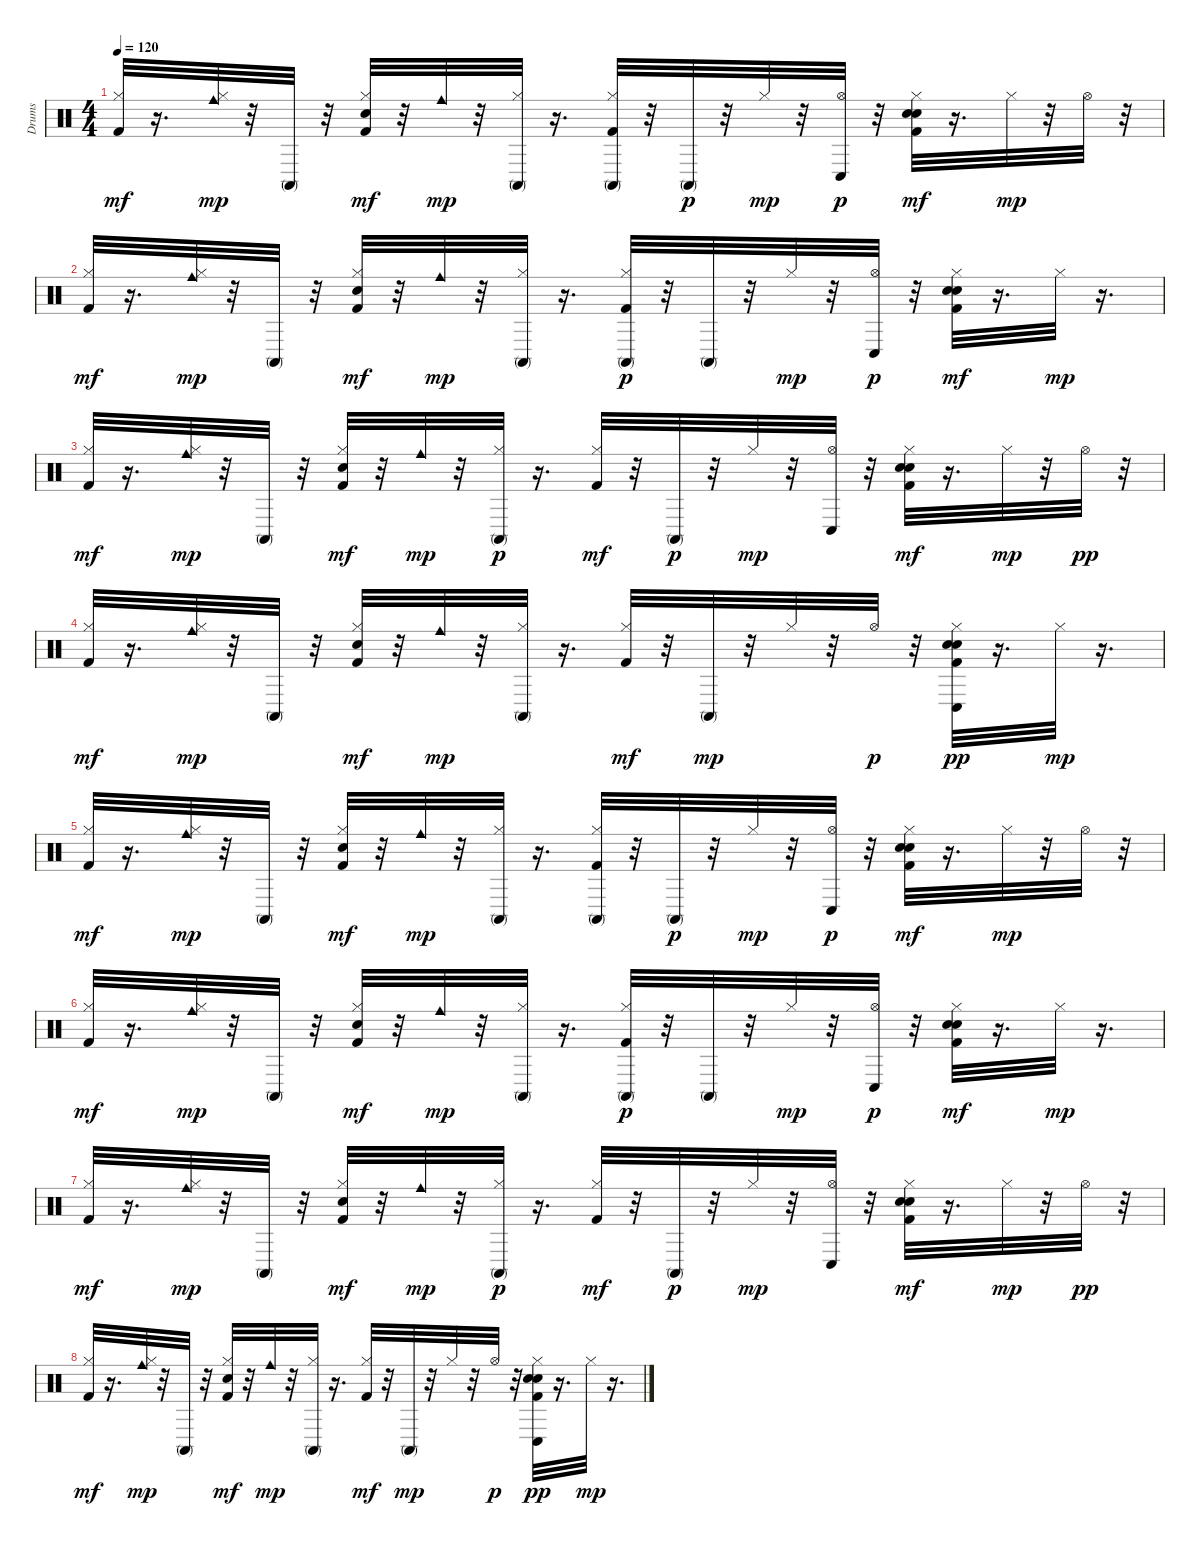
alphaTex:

\track ("Drums" "Drums") {instrument percussion}
\staff {score}
\articulation defaults
\ts (4 4)
\tempo 120
\clef neutral
\ks c
("Hi-Hat (closed)" "Kick (hit) 2").32{dy mf} r.16{d} ("Hi-Hat (closed)" "Cowbell medium (hit)").32{dy mp} r.32 "Conga high (mute)".32 r.32 ("Hi-Hat (closed)" "Electric Snare (hit)" "Kick (hit) 2").32{dy mf} r.32 "Cowbell medium (hit)".32{dy mp} r.32 ("Hi-Hat (closed)" "Conga high (mute)").32 r.16{d} ("Hi-Hat (closed)" "Kick (hit) 2" "Conga high (mute)").32 r.32 "Conga high (mute)".32{dy p} r.32 "Hi-Hat (closed)".32{dy mp} r.32 ("Hi-Hat (open)" "Conga low (hit)").32{dy p} r.32 ("Kick (hit) 2" "Hi-Hat (closed)" "Electric Snare (hit)" "Hand Clap (hit)").32{dy mf} r.16{d} "Hi-Hat (closed)".32{dy mp} r.32 "Hi-Hat (open)".32 r.32 |
("Hi-Hat (closed)" "Kick (hit) 2").32{dy mf} r.16{d} ("Hi-Hat (closed)" "Cowbell medium (hit)").32{dy mp} r.32 "Conga high (mute)".32 r.32 ("Hi-Hat (closed)" "Electric Snare (hit)" "Kick (hit) 2").32{dy mf} r.32 "Cowbell medium (hit)".32{dy mp} r.32 ("Hi-Hat (closed)" "Conga high (mute)").32 r.16{d} ("Kick (hit) 2" "Hi-Hat (closed)" "Conga high (mute)").32{dy p} r.32 "Conga high (mute)".32 r.32 "Hi-Hat (closed)".32{dy mp} r.32 ("Hi-Hat (open)" "Conga low (hit)").32{dy p} r.32 ("Hi-Hat (closed)" "Hand Clap (hit)" "Electric Snare (hit)" "Kick (hit) 2").32{dy mf} r.16{d} "Hi-Hat (closed)".32{dy mp} r.16{d} |
("Hi-Hat (closed)" "Kick (hit) 2").32{dy mf} r.16{d} ("Hi-Hat (closed)" "Cowbell medium (hit)").32{dy mp} r.32 "Conga high (mute)".32 r.32 ("Hi-Hat (closed)" "Electric Snare (hit)" "Kick (hit) 2").32{dy mf} r.32 "Cowbell medium (hit)".32{dy mp} r.32 ("Hi-Hat (closed)" "Conga high (mute)").32{dy p} r.16{d} ("Hi-Hat (closed)" "Kick (hit) 2").32{dy mf} r.32 "Conga high (mute)".32{dy p} r.32 "Hi-Hat (closed)".32{dy mp} r.32 ("Hi-Hat (open)" "Conga low (hit)").32 r.32 ("Kick (hit) 2" "Hi-Hat (closed)" "Electric Snare (hit)" "Hand Clap (hit)").32{dy mf} r.16{d} "Hi-Hat (closed)".32{dy mp} r.32 "Hi-Hat (open)".32{dy pp} r.32 |
("Hi-Hat (closed)" "Kick (hit) 2").32{dy mf} r.16{d} ("Hi-Hat (closed)" "Cowbell medium (hit)").32{dy mp} r.32 "Conga high (mute)".32 r.32 ("Hi-Hat (closed)" "Electric Snare (hit)" "Kick (hit) 2").32{dy mf} r.32 "Cowbell medium (hit)".32{dy mp} r.32 ("Hi-Hat (closed)" "Conga high (mute)").32 r.16{d} ("Hi-Hat (closed)" "Kick (hit) 2").32{dy mf} r.32 "Conga high (mute)".32{dy mp} r.32 "Hi-Hat (closed)".32 r.32 "Hi-Hat (open)".32{dy p} r.32 ("Hi-Hat (closed)" "Kick (hit) 2" "Hand Clap (hit)" "Electric Snare (hit)" "Conga low (hit)").32{dy pp} r.16{d} "Hi-Hat (closed)".32{dy mp} r.16{d} |
("Hi-Hat (closed)" "Kick (hit) 2").32{dy mf} r.16{d} ("Hi-Hat (closed)" "Cowbell medium (hit)").32{dy mp} r.32 "Conga high (mute)".32 r.32 ("Hi-Hat (closed)" "Electric Snare (hit)" "Kick (hit) 2").32{dy mf} r.32 "Cowbell medium (hit)".32{dy mp} r.32 ("Hi-Hat (closed)" "Conga high (mute)").32 r.16{d} ("Hi-Hat (closed)" "Kick (hit) 2" "Conga high (mute)").32 r.32 "Conga high (mute)".32{dy p} r.32 "Hi-Hat (closed)".32{dy mp} r.32 ("Hi-Hat (open)" "Conga low (hit)").32{dy p} r.32 ("Kick (hit) 2" "Hi-Hat (closed)" "Electric Snare (hit)" "Hand Clap (hit)").32{dy mf} r.16{d} "Hi-Hat (closed)".32{dy mp} r.32 "Hi-Hat (open)".32 r.32 |
("Hi-Hat (closed)" "Kick (hit) 2").32{dy mf} r.16{d} ("Hi-Hat (closed)" "Cowbell medium (hit)").32{dy mp} r.32 "Conga high (mute)".32 r.32 ("Hi-Hat (closed)" "Electric Snare (hit)" "Kick (hit) 2").32{dy mf} r.32 "Cowbell medium (hit)".32{dy mp} r.32 ("Hi-Hat (closed)" "Conga high (mute)").32 r.16{d} ("Kick (hit) 2" "Hi-Hat (closed)" "Conga high (mute)").32{dy p} r.32 "Conga high (mute)".32 r.32 "Hi-Hat (closed)".32{dy mp} r.32 ("Hi-Hat (open)" "Conga low (hit)").32{dy p} r.32 ("Hi-Hat (closed)" "Hand Clap (hit)" "Electric Snare (hit)" "Kick (hit) 2").32{dy mf} r.16{d} "Hi-Hat (closed)".32{dy mp} r.16{d} |
("Hi-Hat (closed)" "Kick (hit) 2").32{dy mf} r.16{d} ("Hi-Hat (closed)" "Cowbell medium (hit)").32{dy mp} r.32 "Conga high (mute)".32 r.32 ("Hi-Hat (closed)" "Electric Snare (hit)" "Kick (hit) 2").32{dy mf} r.32 "Cowbell medium (hit)".32{dy mp} r.32 ("Hi-Hat (closed)" "Conga high (mute)").32{dy p} r.16{d} ("Hi-Hat (closed)" "Kick (hit) 2").32{dy mf} r.32 "Conga high (mute)".32{dy p} r.32 "Hi-Hat (closed)".32{dy mp} r.32 ("Hi-Hat (open)" "Conga low (hit)").32 r.32 ("Kick (hit) 2" "Hi-Hat (closed)" "Electric Snare (hit)" "Hand Clap (hit)").32{dy mf} r.16{d} "Hi-Hat (closed)".32{dy mp} r.32 "Hi-Hat (open)".32{dy pp} r.32 |
("Hi-Hat (closed)" "Kick (hit) 2").32{dy mf} r.16{d} ("Hi-Hat (closed)" "Cowbell medium (hit)").32{dy mp} r.32 "Conga high (mute)".32 r.32 ("Hi-Hat (closed)" "Electric Snare (hit)" "Kick (hit) 2").32{dy mf} r.32 "Cowbell medium (hit)".32{dy mp} r.32 ("Hi-Hat (closed)" "Conga high (mute)").32 r.16{d} ("Hi-Hat (closed)" "Kick (hit) 2").32{dy mf} r.32 "Conga high (mute)".32{dy mp} r.32 "Hi-Hat (closed)".32 r.32 "Hi-Hat (open)".32{dy p} r.32 ("Hi-Hat (closed)" "Kick (hit) 2" "Hand Clap (hit)" "Electric Snare (hit)" "Conga low (hit)").32{dy pp} r.16{d} "Hi-Hat (closed)".32{dy mp} r.16{d}
